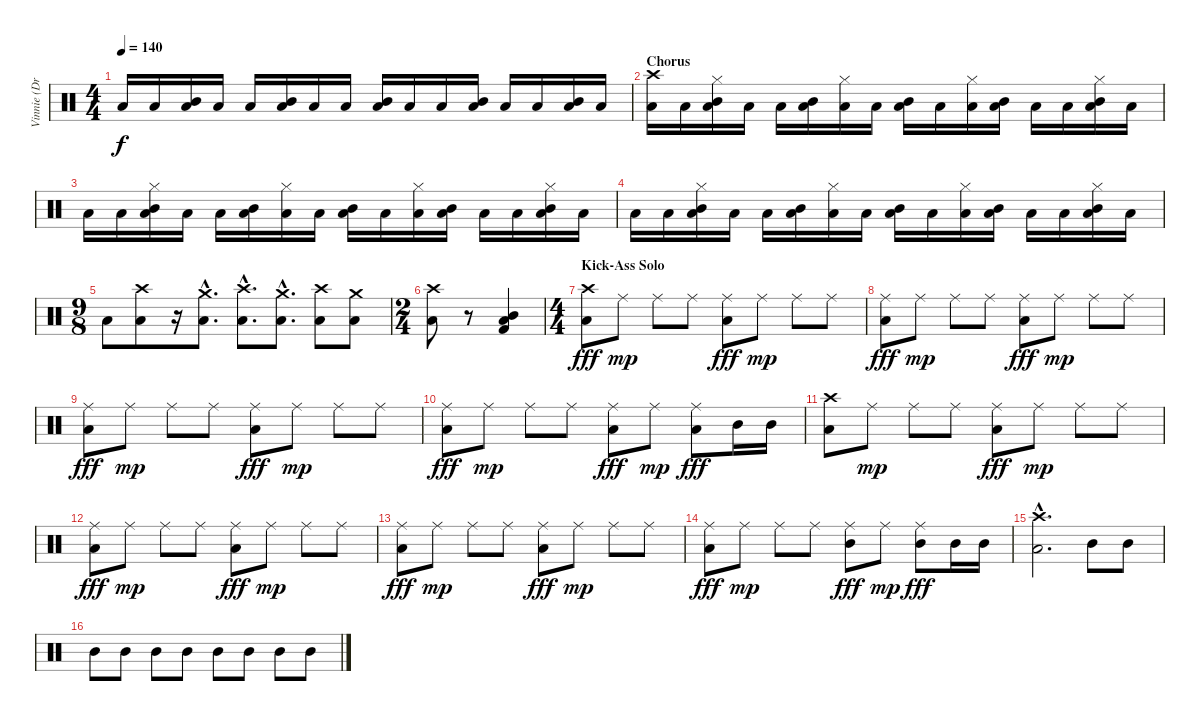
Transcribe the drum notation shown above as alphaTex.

\track ("Vinnie (Drums)" "Vinnie (Dr") {instrument percussion}
\staff {score}
\articulation defaults
\ts (4 4)
\tempo 140
\clef neutral
\ks c "Low Floor Tom (hit)".16{dy f} "Low Floor Tom (hit)".16
("Mid Tom (hit)" "Low Floor Tom (hit)").16 "Low Floor Tom (hit)".16 "Low Floor Tom (hit)".16 ("Mid Tom (hit)" "Low Floor Tom (hit)").16 "Low Floor Tom (hit)".16 "Low Floor Tom (hit)".16 ("Mid Tom (hit)" "Low Floor Tom (hit)").16 "Low Floor Tom (hit)".16 "Low Floor Tom (hit)".16 ("Mid Tom (hit)" "Low Floor Tom (hit)").16 "Low Floor Tom (hit)".16 "Low Floor Tom (hit)".16 ("Mid Tom (hit)" "Low Floor Tom (hit)").16 "Low Floor Tom (hit)".16 |
\section ("" "Chorus")
("Crash high (hit)" "Low Floor Tom (hit)").16 "Low Floor Tom (hit)".16 ("Hi-Hat (closed)" "Mid Tom (hit)" "Low Floor Tom (hit)").16 "Low Floor Tom (hit)".16 "Low Floor Tom (hit)".16 ("Mid Tom (hit)" "Low Floor Tom (hit)").16 ("Hi-Hat (closed)" "Low Floor Tom (hit)").16 "Low Floor Tom (hit)".16 ("Mid Tom (hit)" "Low Floor Tom (hit)").16 "Low Floor Tom (hit)".16 ("Hi-Hat (closed)" "Low Floor Tom (hit)").16 ("Mid Tom (hit)" "Low Floor Tom (hit)").16 "Low Floor Tom (hit)".16 "Low Floor Tom (hit)".16 ("Hi-Hat (closed)" "Mid Tom (hit)" "Low Floor Tom (hit)").16 "Low Floor Tom (hit)".16 |
"Low Floor Tom (hit)".16 "Low Floor Tom (hit)".16 ("Hi-Hat (closed)" "Mid Tom (hit)" "Low Floor Tom (hit)").16 "Low Floor Tom (hit)".16 "Low Floor Tom (hit)".16 ("Mid Tom (hit)" "Low Floor Tom (hit)").16 ("Hi-Hat (closed)" "Low Floor Tom (hit)").16 "Low Floor Tom (hit)".16 ("Mid Tom (hit)" "Low Floor Tom (hit)").16 "Low Floor Tom (hit)".16 ("Hi-Hat (closed)" "Low Floor Tom (hit)").16 ("Mid Tom (hit)" "Low Floor Tom (hit)").16 "Low Floor Tom (hit)".16 "Low Floor Tom (hit)".16 ("Hi-Hat (closed)" "Mid Tom (hit)" "Low Floor Tom (hit)").16 "Low Floor Tom (hit)".16 |
"Low Floor Tom (hit)".16 "Low Floor Tom (hit)".16 ("Hi-Hat (closed)" "Mid Tom (hit)" "Low Floor Tom (hit)").16 "Low Floor Tom (hit)".16 "Low Floor Tom (hit)".16 ("Mid Tom (hit)" "Low Floor Tom (hit)").16 ("Hi-Hat (closed)" "Low Floor Tom (hit)").16 "Low Floor Tom (hit)".16 ("Mid Tom (hit)" "Low Floor Tom (hit)").16 "Low Floor Tom (hit)".16 ("Hi-Hat (closed)" "Low Floor Tom (hit)").16 ("Mid Tom (hit)" "Low Floor Tom (hit)").16 "Low Floor Tom (hit)".16 "Low Floor Tom (hit)".16 ("Hi-Hat (closed)" "Mid Tom (hit)" "Low Floor Tom (hit)").16 "Low Floor Tom (hit)".16 |
\ts (9 8)
"Low Floor Tom (hit)".8 ("Crash high (hit)" "Low Floor Tom (hit)").8 r.16 ("Crash medium (hit)"{hac} "Low Floor Tom (hit)"{hac}).8{d} ("Crash high (hit)"{hac} "Low Floor Tom (hit)"{hac}).8{d} ("Crash medium (hit)"{hac} "Low Floor Tom (hit)"{hac}).8{d} ("Crash high (hit)" "Low Floor Tom (hit)").8 ("Crash medium (hit)" "Low Floor Tom (hit)").8 |
\ts (2 4)
("Crash high (hit)" "Low Floor Tom (hit)").8 r.8 ("Mid Tom (hit)" "Kick (hit) 2" "Low Floor Tom (hit)").4 |
\ts (4 4)
\section ("" "Kick-Ass Solo")
("Crash high (hit)" "Low Floor Tom (hit)").8{dy fff} "Ride (middle)".8{dy mp} "Ride (middle)".8 "Ride (middle)".8 ("Ride (middle)" "Low Tom (hit)").8{dy fff} "Ride (middle)".8{dy mp} "Ride (middle)".8 "Ride (middle)".8 |
("Ride (middle)" "Low Floor Tom (hit)").8{dy fff} "Ride (middle)".8{dy mp} "Ride (middle)".8 "Ride (middle)".8 ("Ride (middle)" "Low Tom (hit)").8{dy fff} "Ride (middle)".8{dy mp} "Ride (middle)".8 "Ride (middle)".8 |
("Ride (middle)" "Low Floor Tom (hit)").8{dy fff} "Ride (middle)".8{dy mp} "Ride (middle)".8 "Ride (middle)".8 ("Ride (middle)" "Low Tom (hit)").8{dy fff} "Ride (middle)".8{dy mp} "Ride (middle)".8 "Ride (middle)".8 |
("Ride (middle)" "Low Floor Tom (hit)").8{dy fff} "Ride (middle)".8{dy mp} "Ride (middle)".8 "Ride (middle)".8 ("Ride (middle)" "Low Tom (hit)").8{dy fff} "Ride (middle)".8{dy mp} ("Ride (middle)" "Low Tom (hit)").8{dy fff} "Mid Tom (hit)".16 "Mid Tom (hit)".16 |
("Crash high (hit)" "Low Floor Tom (hit)").8 "Ride (middle)".8{dy mp} "Ride (middle)".8 "Ride (middle)".8 ("Ride (middle)" "Low Tom (hit)").8{dy fff} "Ride (middle)".8{dy mp} "Ride (middle)".8 "Ride (middle)".8 |
("Ride (middle)" "Low Floor Tom (hit)").8{dy fff} "Ride (middle)".8{dy mp} "Ride (middle)".8 "Ride (middle)".8 ("Ride (middle)" "Low Tom (hit)").8{dy fff} "Ride (middle)".8{dy mp} "Ride (middle)".8 "Ride (middle)".8 |
("Ride (middle)" "Low Floor Tom (hit)").8{dy fff} "Ride (middle)".8{dy mp} "Ride (middle)".8 "Ride (middle)".8 ("Ride (middle)" "Low Tom (hit)").8{dy fff} "Ride (middle)".8{dy mp} "Ride (middle)".8 "Ride (middle)".8 |
("Ride (middle)" "Low Floor Tom (hit)").8{dy fff} "Ride (middle)".8{dy mp} "Ride (middle)".8 "Ride (middle)".8 ("Ride (middle)" "Mid Tom (hit)").8{dy fff} "Ride (middle)".8{dy mp} ("Ride (middle)" "Mid Tom (hit)").8{dy fff} "Mid Tom (hit)".16 "Mid Tom (hit)".16 |
("Crash high (hit)"{hac} "Low Floor Tom (hit)"{hac}).2{d} "Mid Tom (hit)".8 "Mid Tom (hit)".8 |
"Mid Tom (hit)".8 "Mid Tom (hit)".8 "Mid Tom (hit)".8 "Mid Tom (hit)".8 "Mid Tom (hit)".8 "Mid Tom (hit)".8 "Mid Tom (hit)".8 "Mid Tom (hit)".8
